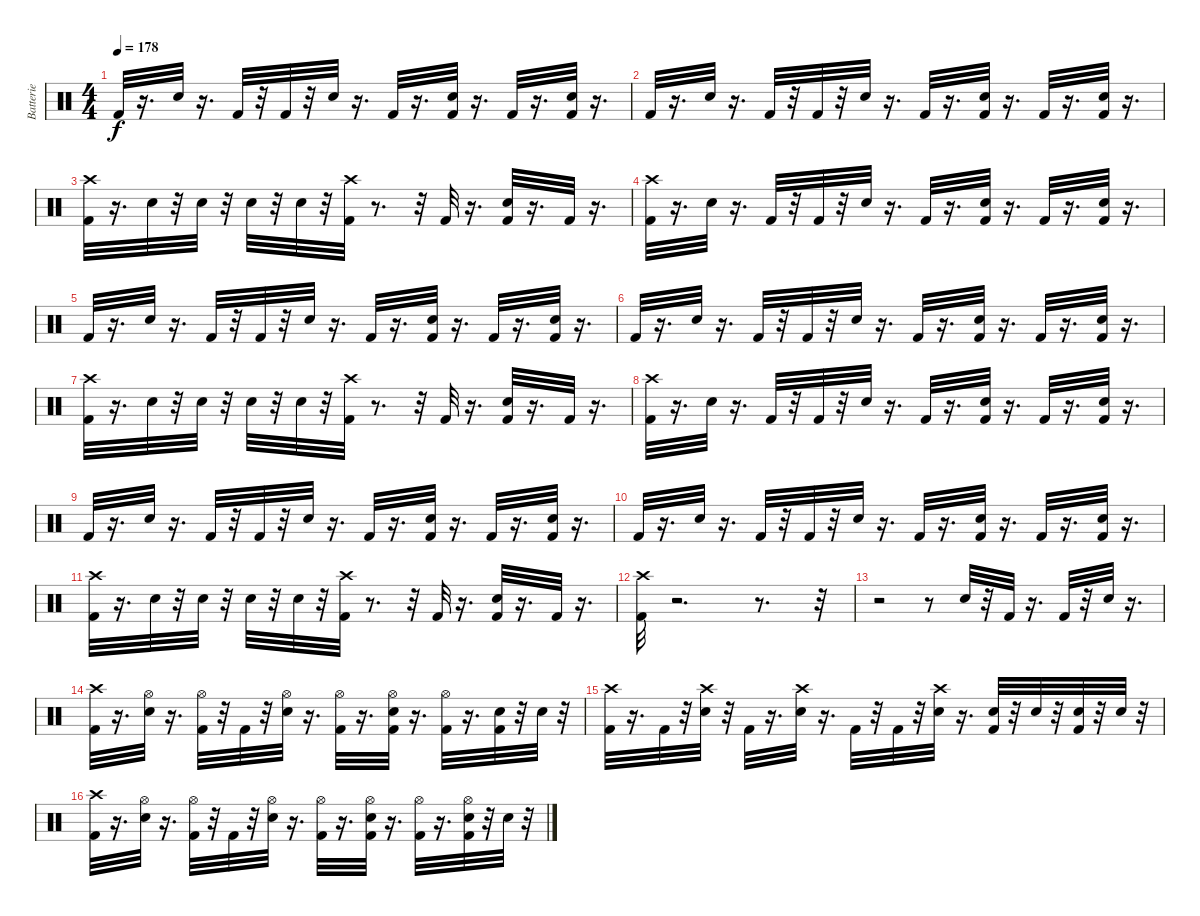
\track ("Batterie" "Batterie") {instrument percussion}
\staff {score}
\articulation defaults
\ts (4 4)
\tempo 178
\clef neutral
\ks c "Kick (hit) 2".32{dy f}
r.16{d} "Electric Snare (hit)".32 r.16{d} "Kick (hit) 2".32 r.32 "Kick (hit) 2".32 r.32 "Electric Snare (hit)".32 r.16{d} "Kick (hit) 2".32 r.16{d} ("Kick (hit) 2" "Electric Snare (hit)").32 r.16{d} "Kick (hit) 2".32 r.16{d} ("Kick (hit) 2" "Electric Snare (hit)").32 r.16{d} |
"Kick (hit) 2".32 r.16{d} "Electric Snare (hit)".32 r.16{d} "Kick (hit) 2".32 r.32 "Kick (hit) 2".32 r.32 "Electric Snare (hit)".32 r.16{d} "Kick (hit) 2".32 r.16{d} ("Kick (hit) 2" "Electric Snare (hit)").32 r.16{d} "Kick (hit) 2".32 r.16{d} ("Kick (hit) 2" "Electric Snare (hit)").32 r.16{d} |
("Kick (hit) 2" "Crash high (hit)").32 r.16{d} "Electric Snare (hit)".32 r.32 "Electric Snare (hit)".32 r.32 "Electric Snare (hit)".32 r.32 "Electric Snare (hit)".32 r.32 ("Crash high (hit)" "Kick (hit) 2").32 r.8{d} r.32 "Kick (hit) 2".32 r.16{d} ("Electric Snare (hit)" "Kick (hit) 2").32 r.16{d} "Kick (hit) 2".32 r.16{d} |
("Kick (hit) 2" "Crash high (hit)").32 r.16{d} "Electric Snare (hit)".32 r.16{d} "Kick (hit) 2".32 r.32 "Kick (hit) 2".32 r.32 "Electric Snare (hit)".32 r.16{d} "Kick (hit) 2".32 r.16{d} ("Electric Snare (hit)" "Kick (hit) 2").32 r.16{d} "Kick (hit) 2".32 r.16{d} ("Electric Snare (hit)" "Kick (hit) 2").32 r.16{d} |
"Kick (hit) 2".32 r.16{d} "Electric Snare (hit)".32 r.16{d} "Kick (hit) 2".32 r.32 "Kick (hit) 2".32 r.32 "Electric Snare (hit)".32 r.16{d} "Kick (hit) 2".32 r.16{d} ("Kick (hit) 2" "Electric Snare (hit)").32 r.16{d} "Kick (hit) 2".32 r.16{d} ("Kick (hit) 2" "Electric Snare (hit)").32 r.16{d} |
"Kick (hit) 2".32 r.16{d} "Electric Snare (hit)".32 r.16{d} "Kick (hit) 2".32 r.32 "Kick (hit) 2".32 r.32 "Electric Snare (hit)".32 r.16{d} "Kick (hit) 2".32 r.16{d} ("Kick (hit) 2" "Electric Snare (hit)").32 r.16{d} "Kick (hit) 2".32 r.16{d} ("Kick (hit) 2" "Electric Snare (hit)").32 r.16{d} |
("Kick (hit) 2" "Crash high (hit)").32 r.16{d} "Electric Snare (hit)".32 r.32 "Electric Snare (hit)".32 r.32 "Electric Snare (hit)".32 r.32 "Electric Snare (hit)".32 r.32 ("Crash high (hit)" "Kick (hit) 2").32 r.8{d} r.32 "Kick (hit) 2".32 r.16{d} ("Electric Snare (hit)" "Kick (hit) 2").32 r.16{d} "Kick (hit) 2".32 r.16{d} |
("Kick (hit) 2" "Crash high (hit)").32 r.16{d} "Electric Snare (hit)".32 r.16{d} "Kick (hit) 2".32 r.32 "Kick (hit) 2".32 r.32 "Electric Snare (hit)".32 r.16{d} "Kick (hit) 2".32 r.16{d} ("Electric Snare (hit)" "Kick (hit) 2").32 r.16{d} "Kick (hit) 2".32 r.16{d} ("Electric Snare (hit)" "Kick (hit) 2").32 r.16{d} |
"Kick (hit) 2".32 r.16{d} "Electric Snare (hit)".32 r.16{d} "Kick (hit) 2".32 r.32 "Kick (hit) 2".32 r.32 "Electric Snare (hit)".32 r.16{d} "Kick (hit) 2".32 r.16{d} ("Kick (hit) 2" "Electric Snare (hit)").32 r.16{d} "Kick (hit) 2".32 r.16{d} ("Kick (hit) 2" "Electric Snare (hit)").32 r.16{d} |
"Kick (hit) 2".32 r.16{d} "Electric Snare (hit)".32 r.16{d} "Kick (hit) 2".32 r.32 "Kick (hit) 2".32 r.32 "Electric Snare (hit)".32 r.16{d} "Kick (hit) 2".32 r.16{d} ("Kick (hit) 2" "Electric Snare (hit)").32 r.16{d} "Kick (hit) 2".32 r.16{d} ("Kick (hit) 2" "Electric Snare (hit)").32 r.16{d} |
("Kick (hit) 2" "Crash high (hit)").32 r.16{d} "Electric Snare (hit)".32 r.32 "Electric Snare (hit)".32 r.32 "Electric Snare (hit)".32 r.32 "Electric Snare (hit)".32 r.32 ("Crash high (hit)" "Kick (hit) 2").32 r.8{d} r.32 "Kick (hit) 2".32 r.16{d} ("Electric Snare (hit)" "Kick (hit) 2").32 r.16{d} "Kick (hit) 2".32 r.16{d} |
("Kick (hit) 2" "Crash high (hit)").32 r.2{d} r.8{d} r.32 |
r.2 r.8 "Electric Snare (hit)".32 r.32 "Kick (hit) 2".32 r.16{d} "Kick (hit) 2".32 r.32 "Electric Snare (hit)".32 r.16{d} |
("Kick (hit) 2" "Crash high (hit)").32 r.16{d} ("Electric Snare (hit)" "Hi-Hat (open)").32 r.16{d} ("Kick (hit) 2" "Hi-Hat (open)").32 r.32 "Kick (hit) 2".32 r.32 ("Electric Snare (hit)" "Hi-Hat (open)").32 r.16{d} ("Kick (hit) 2" "Hi-Hat (open)").32 r.16{d} ("Electric Snare (hit)" "Kick (hit) 2" "Hi-Hat (open)").32 r.16{d} ("Kick (hit) 2" "Hi-Hat (open)").32 r.16{d} ("Kick (hit) 2" "Electric Snare (hit)").32 r.32 "Electric Snare (hit)".32 r.32 |
("Kick (hit) 2" "Crash high (hit)").32 r.16{d} "Kick (hit) 2".32 r.32 ("Crash high (hit)" "Electric Snare (hit)").32 r.32 "Kick (hit) 2".32 r.16{d} ("Electric Snare (hit)" "Crash high (hit)").32 r.16{d} "Kick (hit) 2".32 r.32 "Kick (hit) 2".32 r.32 ("Electric Snare (hit)" "Crash high (hit)").32 r.16{d} ("Kick (hit) 2" "Electric Snare (hit)").32 r.32 "Electric Snare (hit)".32 r.32 ("Kick (hit) 2" "Electric Snare (hit)").32 r.32 "Electric Snare (hit)".32 r.32 |
("Kick (hit) 2" "Crash high (hit)").32 r.16{d} ("Electric Snare (hit)" "Hi-Hat (open)").32 r.16{d} ("Kick (hit) 2" "Hi-Hat (open)").32 r.32 "Kick (hit) 2".32 r.32 ("Electric Snare (hit)" "Hi-Hat (open)").32 r.16{d} ("Kick (hit) 2" "Hi-Hat (open)").32 r.16{d} ("Electric Snare (hit)" "Kick (hit) 2" "Hi-Hat (open)").32 r.16{d} ("Kick (hit) 2" "Hi-Hat (open)").32 r.16{d} ("Electric Snare (hit)" "Kick (hit) 2" "Hi-Hat (open)").32 r.32 "Electric Snare (hit)".32 r.32
